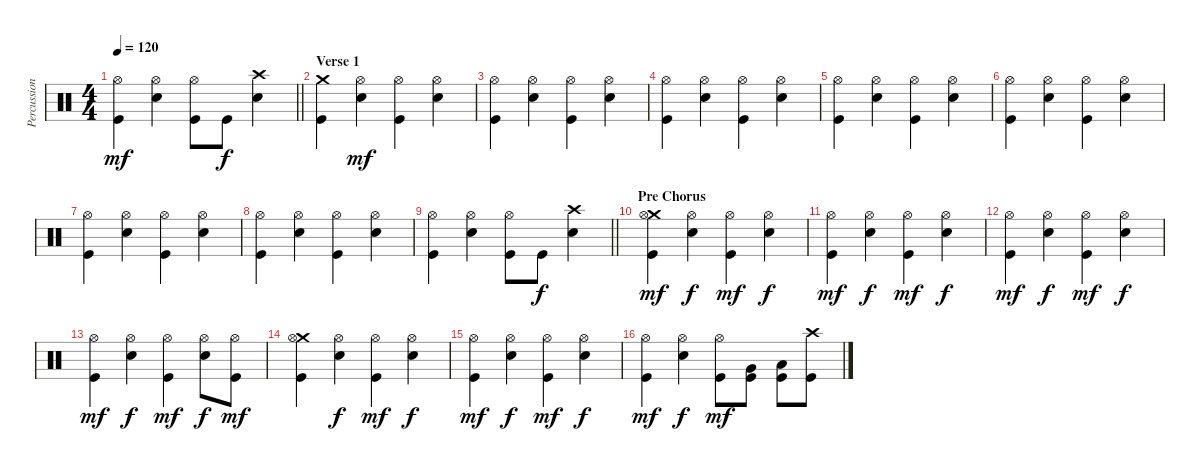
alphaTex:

\track ("Percussion" "Percussion") {instrument percussion}
\staff {score}
\articulation defaults
\ts (4 4)
\tempo 120
\clef neutral
\barLineRight lightlight
\ks c
("Hi-Hat (open)" "Kick (hit)").4{dy mf} ("Hi-Hat (open)" "Electric Snare (hit)").4 ("Hi-Hat (open)" "Kick (hit)").8 "Kick (hit)".8{dy f} ("Crash high (hit)" "Electric Snare (hit)").4 |
\section ("" "Verse 1")
("Crash medium (hit)" "Kick (hit)").4 ("Hi-Hat (open)" "Electric Snare (hit)").4{dy mf} ("Hi-Hat (open)" "Kick (hit)").4 ("Hi-Hat (open)" "Electric Snare (hit)").4 |
("Hi-Hat (open)" "Kick (hit)").4 ("Hi-Hat (open)" "Electric Snare (hit)").4 ("Hi-Hat (open)" "Kick (hit)").4 ("Hi-Hat (open)" "Electric Snare (hit)").4 |
("Hi-Hat (open)" "Kick (hit)").4 ("Hi-Hat (open)" "Electric Snare (hit)").4 ("Hi-Hat (open)" "Kick (hit)").4 ("Hi-Hat (open)" "Electric Snare (hit)").4 |
("Hi-Hat (open)" "Kick (hit)").4 ("Hi-Hat (open)" "Electric Snare (hit)").4 ("Hi-Hat (open)" "Kick (hit)").4 ("Hi-Hat (open)" "Electric Snare (hit)").4 |
("Hi-Hat (open)" "Kick (hit)").4 ("Hi-Hat (open)" "Electric Snare (hit)").4 ("Hi-Hat (open)" "Kick (hit)").4 ("Hi-Hat (open)" "Electric Snare (hit)").4 |
("Hi-Hat (open)" "Kick (hit)").4 ("Hi-Hat (open)" "Electric Snare (hit)").4 ("Hi-Hat (open)" "Kick (hit)").4 ("Hi-Hat (open)" "Electric Snare (hit)").4 |
("Hi-Hat (open)" "Kick (hit)").4 ("Hi-Hat (open)" "Electric Snare (hit)").4 ("Hi-Hat (open)" "Kick (hit)").4 ("Hi-Hat (open)" "Electric Snare (hit)").4 |
\barLineRight lightlight
("Hi-Hat (open)" "Kick (hit)").4 ("Hi-Hat (open)" "Electric Snare (hit)").4 ("Hi-Hat (open)" "Kick (hit)").8 "Kick (hit)".8{dy f} ("Crash high (hit)" "Electric Snare (hit)").4 |
\section ("" "Pre Chorus")
("Crash medium (hit)" "Hi-Hat (open)" "Kick (hit)").4{dy mf} ("Hi-Hat (open)" "Electric Snare (hit)").4{dy f} ("Hi-Hat (open)" "Kick (hit)").4{dy mf} ("Hi-Hat (open)" "Electric Snare (hit)").4{dy f} |
("Hi-Hat (open)" "Kick (hit)").4{dy mf} ("Hi-Hat (open)" "Electric Snare (hit)").4{dy f} ("Hi-Hat (open)" "Kick (hit)").4{dy mf} ("Hi-Hat (open)" "Electric Snare (hit)").4{dy f} |
("Hi-Hat (open)" "Kick (hit)").4{dy mf} ("Hi-Hat (open)" "Electric Snare (hit)").4{dy f} ("Hi-Hat (open)" "Kick (hit)").4{dy mf} ("Hi-Hat (open)" "Electric Snare (hit)").4{dy f} |
("Hi-Hat (open)" "Kick (hit)").4{dy mf} ("Hi-Hat (open)" "Electric Snare (hit)").4{dy f} ("Hi-Hat (open)" "Kick (hit)").4{dy mf} ("Hi-Hat (open)" "Electric Snare (hit)").8{dy f} ("Hi-Hat (open)" "Kick (hit)").8{dy mf} |
("Crash medium (hit)" "Hi-Hat (open)" "Kick (hit)").4 ("Hi-Hat (open)" "Electric Snare (hit)").4{dy f} ("Hi-Hat (open)" "Kick (hit)").4{dy mf} ("Hi-Hat (open)" "Electric Snare (hit)").4{dy f} |
("Hi-Hat (open)" "Kick (hit)").4{dy mf} ("Hi-Hat (open)" "Electric Snare (hit)").4{dy f} ("Hi-Hat (open)" "Kick (hit)").4{dy mf} ("Hi-Hat (open)" "Electric Snare (hit)").4{dy f} |
("Hi-Hat (open)" "Kick (hit)").4{dy mf} ("Hi-Hat (open)" "Electric Snare (hit)").4{dy f} ("Hi-Hat (open)" "Kick (hit)").8{dy mf} ("Very Low Tom (hit)" "Kick (hit)").8 ("Low Floor Tom (hit)" "Kick (hit)").8 ("Crash high (hit)" "Kick (hit)").8
